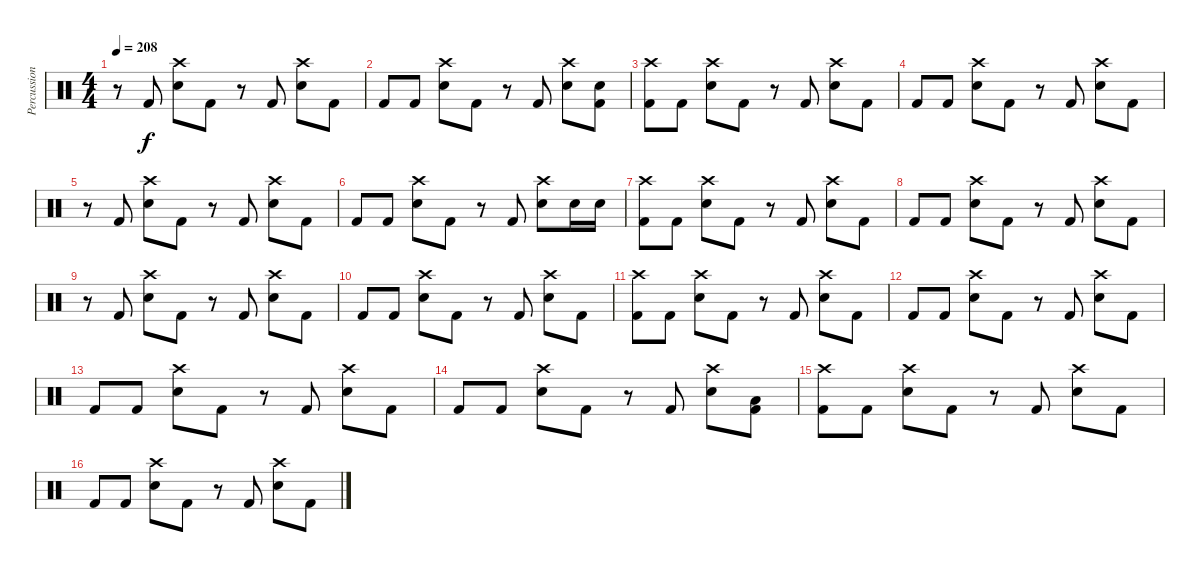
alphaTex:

\track ("Percussion" "Percussion") {instrument percussion}
\staff {score}
\articulation defaults
\ts (4 4)
\tempo 208
\clef neutral
\ks c
r.8{dy f} "Kick (hit) 2".8 ("Crash high (hit)" "Electric Snare (hit)").8 "Kick (hit) 2".8 r.8 "Kick (hit) 2".8 ("Crash high (hit)" "Electric Snare (hit)").8 "Kick (hit) 2".8 |
"Kick (hit) 2".8 "Kick (hit) 2".8 ("Crash high (hit)" "Electric Snare (hit)").8 "Kick (hit) 2".8 r.8 "Kick (hit) 2".8 ("Crash high (hit)" "Electric Snare (hit)").8 ("Electric Snare (hit)" "Kick (hit) 2").8 |
("Crash high (hit)" "Kick (hit) 2").8 "Kick (hit) 2".8 ("Crash high (hit)" "Electric Snare (hit)").8 "Kick (hit) 2".8 r.8 "Kick (hit) 2".8 ("Crash high (hit)" "Electric Snare (hit)").8 "Kick (hit) 2".8 |
"Kick (hit) 2".8 "Kick (hit) 2".8 ("Crash high (hit)" "Electric Snare (hit)").8 "Kick (hit) 2".8 r.8 "Kick (hit) 2".8 ("Crash high (hit)" "Electric Snare (hit)").8 "Kick (hit) 2".8 |
r.8 "Kick (hit) 2".8 ("Crash high (hit)" "Electric Snare (hit)").8 "Kick (hit) 2".8 r.8 "Kick (hit) 2".8 ("Crash high (hit)" "Electric Snare (hit)").8 "Kick (hit) 2".8 |
"Kick (hit) 2".8 "Kick (hit) 2".8 ("Crash high (hit)" "Electric Snare (hit)").8 "Kick (hit) 2".8 r.8 "Kick (hit) 2".8 ("Crash high (hit)" "Electric Snare (hit)").8 "Electric Snare (hit)".16 "Electric Snare (hit)".16 |
("Crash high (hit)" "Kick (hit) 2").8 "Kick (hit) 2".8 ("Crash high (hit)" "Electric Snare (hit)").8 "Kick (hit) 2".8 r.8 "Kick (hit) 2".8 ("Crash high (hit)" "Electric Snare (hit)").8 "Kick (hit) 2".8 |
"Kick (hit) 2".8 "Kick (hit) 2".8 ("Crash high (hit)" "Electric Snare (hit)").8 "Kick (hit) 2".8 r.8 "Kick (hit) 2".8 ("Crash high (hit)" "Electric Snare (hit)").8 "Kick (hit) 2".8 |
r.8 "Kick (hit) 2".8 ("Crash high (hit)" "Electric Snare (hit)").8 "Kick (hit) 2".8 r.8 "Kick (hit) 2".8 ("Crash high (hit)" "Electric Snare (hit)").8 "Kick (hit) 2".8 |
"Kick (hit) 2".8 "Kick (hit) 2".8 ("Crash high (hit)" "Electric Snare (hit)").8 "Kick (hit) 2".8 r.8 "Kick (hit) 2".8 ("Crash high (hit)" "Electric Snare (hit)").8 "Kick (hit) 2".8 |
("Crash high (hit)" "Kick (hit) 2").8 "Kick (hit) 2".8 ("Crash high (hit)" "Electric Snare (hit)").8 "Kick (hit) 2".8 r.8 "Kick (hit) 2".8 ("Crash high (hit)" "Electric Snare (hit)").8 "Kick (hit) 2".8 |
"Kick (hit) 2".8 "Kick (hit) 2".8 ("Crash high (hit)" "Electric Snare (hit)").8 "Kick (hit) 2".8 r.8 "Kick (hit) 2".8 ("Crash high (hit)" "Electric Snare (hit)").8 "Kick (hit) 2".8 |
"Kick (hit) 2".8 "Kick (hit) 2".8 ("Crash high (hit)" "Electric Snare (hit)").8 "Kick (hit) 2".8 r.8 "Kick (hit) 2".8 ("Crash high (hit)" "Electric Snare (hit)").8 "Kick (hit) 2".8 |
"Kick (hit) 2".8 "Kick (hit) 2".8 ("Crash high (hit)" "Electric Snare (hit)").8 "Kick (hit) 2".8 r.8 "Kick (hit) 2".8 ("Crash high (hit)" "Electric Snare (hit)").8 ("Low Tom (hit)" "Kick (hit) 2").8 |
("Crash high (hit)" "Kick (hit) 2").8 "Kick (hit) 2".8 ("Crash high (hit)" "Electric Snare (hit)").8 "Kick (hit) 2".8 r.8 "Kick (hit) 2".8 ("Crash high (hit)" "Electric Snare (hit)").8 "Kick (hit) 2".8 |
"Kick (hit) 2".8 "Kick (hit) 2".8 ("Crash high (hit)" "Electric Snare (hit)").8 "Kick (hit) 2".8 r.8 "Kick (hit) 2".8 ("Crash high (hit)" "Electric Snare (hit)").8 "Kick (hit) 2".8
